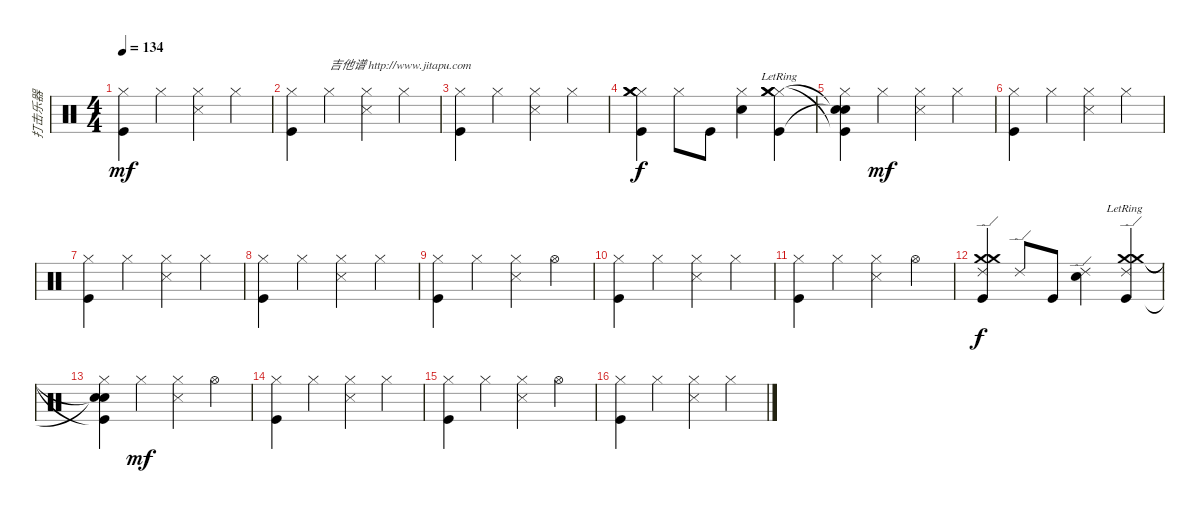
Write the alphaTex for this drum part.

\track ("打击乐器" "打击乐器") {instrument percussion}
\staff {score}
\articulation defaults
\ts (4 4)
\tempo 134
\clef neutral
\ks c
("Hi-Hat (closed)" "Kick (hit)").4{dy mf} "Hi-Hat (closed)".4 ("Hi-Hat (closed)" "Snare (side stick) 3").4 "Hi-Hat (closed)".4 |
("Hi-Hat (closed)" "Kick (hit)").4 "Hi-Hat (closed)".4{txt "吉他谱 http://www.jitapu.com"} ("Hi-Hat (closed)" "Snare (side stick) 3").4 "Hi-Hat (closed)".4 |
("Hi-Hat (closed)" "Kick (hit)").4 "Hi-Hat (closed)".4 ("Hi-Hat (closed)" "Snare (side stick) 3").4 "Hi-Hat (closed)".4 |
("Hi-Hat (closed)" "Crash medium (hit)" "Crash medium (hit)" "Kick (hit)").4{dy f} "Hi-Hat (closed)".8 "Kick (hit)".8 ("Hi-Hat (closed)" "Electric Snare (hit)").4 ("Hi-Hat (closed)" "Crash medium (hit)"{lr} "Crash medium (hit)"{lr} "Kick (hit)").4 |
("Hi-Hat (closed)" "Snare (hit)"{t} "Kick (hit)"{t} "Snare (hit)"{t}).4 "Hi-Hat (closed)".4{dy mf} ("Hi-Hat (closed)" "Snare (side stick) 3").4 "Hi-Hat (closed)".4 |
("Hi-Hat (closed)" "Kick (hit)").4 "Hi-Hat (closed)".4 ("Hi-Hat (closed)" "Snare (side stick) 3").4 "Hi-Hat (closed)".4 |
("Hi-Hat (closed)" "Kick (hit)").4 "Hi-Hat (closed)".4 ("Hi-Hat (closed)" "Snare (side stick) 3").4 "Hi-Hat (closed)".4 |
("Hi-Hat (closed)" "Kick (hit)").4 "Hi-Hat (closed)".4 ("Hi-Hat (closed)" "Snare (side stick) 3").4 "Hi-Hat (closed)".4 |
("Hi-Hat (closed)" "Kick (hit)").4 "Hi-Hat (closed)".4 ("Hi-Hat (closed)" "Snare (side stick) 3").4 "Hi-Hat (open)".4 |
("Hi-Hat (closed)" "Kick (hit)").4 "Hi-Hat (closed)".4 ("Hi-Hat (closed)" "Snare (side stick) 3").4 "Hi-Hat (closed)".4 |
("Hi-Hat (closed)" "Kick (hit)").4 "Hi-Hat (closed)".4 ("Hi-Hat (closed)" "Snare (side stick) 3").4 "Hi-Hat (open)".4 |
("Ride (edge) 2" "Crash medium (hit)" "Crash medium (hit)" "Kick (hit)").4{dy f} "Ride (edge) 2".8 "Kick (hit)".8 ("Ride (edge) 2" "Electric Snare (hit)").4 ("Ride (edge) 2" "Crash medium (hit)"{lr} "Crash medium (hit)"{lr} "Kick (hit)").4 |
("Hi-Hat (closed)" "Snare (hit)"{t} "Kick (hit)"{t} "Snare (hit)"{t}).4 "Hi-Hat (closed)".4{dy mf} ("Hi-Hat (closed)" "Snare (side stick) 3").4 "Hi-Hat (open)".4 |
("Hi-Hat (closed)" "Kick (hit)").4 "Hi-Hat (closed)".4 ("Hi-Hat (closed)" "Snare (side stick) 3").4 "Hi-Hat (closed)".4 |
("Hi-Hat (closed)" "Kick (hit)").4 "Hi-Hat (closed)".4 ("Hi-Hat (closed)" "Snare (side stick) 3").4 "Hi-Hat (open)".4 |
("Hi-Hat (closed)" "Kick (hit)").4 "Hi-Hat (closed)".4 ("Hi-Hat (closed)" "Snare (side stick) 3").4 "Hi-Hat (closed)".4
